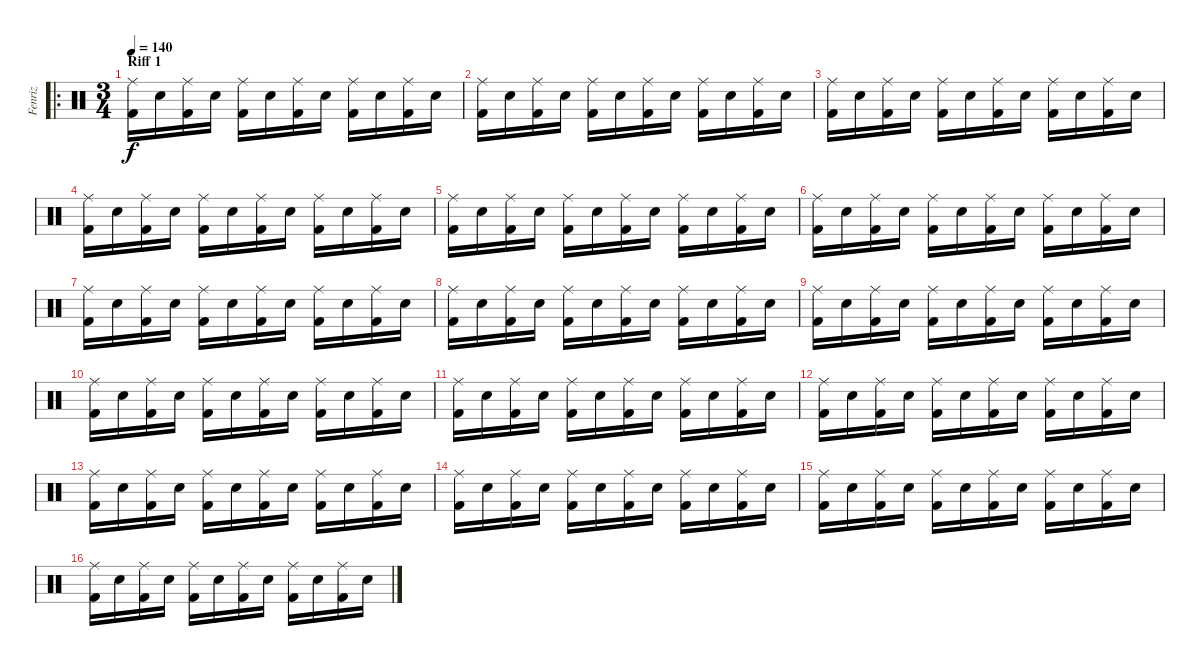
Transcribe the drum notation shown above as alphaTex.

\track ("Fenriz" "Fenriz") {instrument percussion}
\staff {score}
\articulation defaults
\ro
\ts (3 4)
\section ("" "Riff 1")
\tempo 140
\clef neutral
\ks c
("Ride (middle)" "Kick (hit) 2").16{dy f} "Snare (hit) 2".16 ("Ride (middle)" "Kick (hit) 2").16 "Snare (hit) 2".16 ("Ride (middle)" "Kick (hit) 2").16 "Snare (hit) 2".16 ("Ride (middle)" "Kick (hit) 2").16 "Snare (hit) 2".16 ("Ride (middle)" "Kick (hit) 2").16 "Snare (hit) 2".16 ("Ride (middle)" "Kick (hit) 2").16 "Snare (hit) 2".16 |
("Ride (middle)" "Kick (hit) 2").16 "Snare (hit) 2".16 ("Ride (middle)" "Kick (hit) 2").16 "Snare (hit) 2".16 ("Ride (middle)" "Kick (hit) 2").16 "Snare (hit) 2".16 ("Ride (middle)" "Kick (hit) 2").16 "Snare (hit) 2".16 ("Ride (middle)" "Kick (hit) 2").16 "Snare (hit) 2".16 ("Ride (middle)" "Kick (hit) 2").16 "Snare (hit) 2".16 |
("Ride (middle)" "Kick (hit) 2").16 "Snare (hit) 2".16 ("Ride (middle)" "Kick (hit) 2").16 "Snare (hit) 2".16 ("Ride (middle)" "Kick (hit) 2").16 "Snare (hit) 2".16 ("Ride (middle)" "Kick (hit) 2").16 "Snare (hit) 2".16 ("Ride (middle)" "Kick (hit) 2").16 "Snare (hit) 2".16 ("Ride (middle)" "Kick (hit) 2").16 "Snare (hit) 2".16 |
("Ride (middle)" "Kick (hit) 2").16 "Snare (hit) 2".16 ("Ride (middle)" "Kick (hit) 2").16 "Snare (hit) 2".16 ("Ride (middle)" "Kick (hit) 2").16 "Snare (hit) 2".16 ("Ride (middle)" "Kick (hit) 2").16 "Snare (hit) 2".16 ("Ride (middle)" "Kick (hit) 2").16 "Snare (hit) 2".16 ("Ride (middle)" "Kick (hit) 2").16 "Snare (hit) 2".16 |
("Ride (middle)" "Kick (hit) 2").16 "Snare (hit) 2".16 ("Ride (middle)" "Kick (hit) 2").16 "Snare (hit) 2".16 ("Ride (middle)" "Kick (hit) 2").16 "Snare (hit) 2".16 ("Ride (middle)" "Kick (hit) 2").16 "Snare (hit) 2".16 ("Ride (middle)" "Kick (hit) 2").16 "Snare (hit) 2".16 ("Ride (middle)" "Kick (hit) 2").16 "Snare (hit) 2".16 |
("Ride (middle)" "Kick (hit) 2").16 "Snare (hit) 2".16 ("Ride (middle)" "Kick (hit) 2").16 "Snare (hit) 2".16 ("Ride (middle)" "Kick (hit) 2").16 "Snare (hit) 2".16 ("Ride (middle)" "Kick (hit) 2").16 "Snare (hit) 2".16 ("Ride (middle)" "Kick (hit) 2").16 "Snare (hit) 2".16 ("Ride (middle)" "Kick (hit) 2").16 "Snare (hit) 2".16 |
("Ride (middle)" "Kick (hit) 2").16 "Snare (hit) 2".16 ("Ride (middle)" "Kick (hit) 2").16 "Snare (hit) 2".16 ("Ride (middle)" "Kick (hit) 2").16 "Snare (hit) 2".16 ("Ride (middle)" "Kick (hit) 2").16 "Snare (hit) 2".16 ("Ride (middle)" "Kick (hit) 2").16 "Snare (hit) 2".16 ("Ride (middle)" "Kick (hit) 2").16 "Snare (hit) 2".16 |
("Ride (middle)" "Kick (hit) 2").16 "Snare (hit) 2".16 ("Ride (middle)" "Kick (hit) 2").16 "Snare (hit) 2".16 ("Ride (middle)" "Kick (hit) 2").16 "Snare (hit) 2".16 ("Ride (middle)" "Kick (hit) 2").16 "Snare (hit) 2".16 ("Ride (middle)" "Kick (hit) 2").16 "Snare (hit) 2".16 ("Ride (middle)" "Kick (hit) 2").16 "Snare (hit) 2".16 |
("Ride (middle)" "Kick (hit) 2").16 "Snare (hit) 2".16 ("Ride (middle)" "Kick (hit) 2").16 "Snare (hit) 2".16 ("Ride (middle)" "Kick (hit) 2").16 "Snare (hit) 2".16 ("Ride (middle)" "Kick (hit) 2").16 "Snare (hit) 2".16 ("Ride (middle)" "Kick (hit) 2").16 "Snare (hit) 2".16 ("Ride (middle)" "Kick (hit) 2").16 "Snare (hit) 2".16 |
("Ride (middle)" "Kick (hit) 2").16 "Snare (hit) 2".16 ("Ride (middle)" "Kick (hit) 2").16 "Snare (hit) 2".16 ("Ride (middle)" "Kick (hit) 2").16 "Snare (hit) 2".16 ("Ride (middle)" "Kick (hit) 2").16 "Snare (hit) 2".16 ("Ride (middle)" "Kick (hit) 2").16 "Snare (hit) 2".16 ("Ride (middle)" "Kick (hit) 2").16 "Snare (hit) 2".16 |
("Ride (middle)" "Kick (hit) 2").16 "Snare (hit) 2".16 ("Ride (middle)" "Kick (hit) 2").16 "Snare (hit) 2".16 ("Ride (middle)" "Kick (hit) 2").16 "Snare (hit) 2".16 ("Ride (middle)" "Kick (hit) 2").16 "Snare (hit) 2".16 ("Ride (middle)" "Kick (hit) 2").16 "Snare (hit) 2".16 ("Ride (middle)" "Kick (hit) 2").16 "Snare (hit) 2".16 |
("Ride (middle)" "Kick (hit) 2").16 "Snare (hit) 2".16 ("Ride (middle)" "Kick (hit) 2").16 "Snare (hit) 2".16 ("Ride (middle)" "Kick (hit) 2").16 "Snare (hit) 2".16 ("Ride (middle)" "Kick (hit) 2").16 "Snare (hit) 2".16 ("Ride (middle)" "Kick (hit) 2").16 "Snare (hit) 2".16 ("Ride (middle)" "Kick (hit) 2").16 "Snare (hit) 2".16 |
("Ride (middle)" "Kick (hit) 2").16 "Snare (hit) 2".16 ("Ride (middle)" "Kick (hit) 2").16 "Snare (hit) 2".16 ("Ride (middle)" "Kick (hit) 2").16 "Snare (hit) 2".16 ("Ride (middle)" "Kick (hit) 2").16 "Snare (hit) 2".16 ("Ride (middle)" "Kick (hit) 2").16 "Snare (hit) 2".16 ("Ride (middle)" "Kick (hit) 2").16 "Snare (hit) 2".16 |
("Ride (middle)" "Kick (hit) 2").16 "Snare (hit) 2".16 ("Ride (middle)" "Kick (hit) 2").16 "Snare (hit) 2".16 ("Ride (middle)" "Kick (hit) 2").16 "Snare (hit) 2".16 ("Ride (middle)" "Kick (hit) 2").16 "Snare (hit) 2".16 ("Ride (middle)" "Kick (hit) 2").16 "Snare (hit) 2".16 ("Ride (middle)" "Kick (hit) 2").16 "Snare (hit) 2".16 |
("Ride (middle)" "Kick (hit) 2").16 "Snare (hit) 2".16 ("Ride (middle)" "Kick (hit) 2").16 "Snare (hit) 2".16 ("Ride (middle)" "Kick (hit) 2").16 "Snare (hit) 2".16 ("Ride (middle)" "Kick (hit) 2").16 "Snare (hit) 2".16 ("Ride (middle)" "Kick (hit) 2").16 "Snare (hit) 2".16 ("Ride (middle)" "Kick (hit) 2").16 "Snare (hit) 2".16 |
("Ride (middle)" "Kick (hit) 2").16 "Snare (hit) 2".16 ("Ride (middle)" "Kick (hit) 2").16 "Snare (hit) 2".16 ("Ride (middle)" "Kick (hit) 2").16 "Snare (hit) 2".16 ("Ride (middle)" "Kick (hit) 2").16 "Snare (hit) 2".16 ("Ride (middle)" "Kick (hit) 2").16 "Snare (hit) 2".16 ("Ride (middle)" "Kick (hit) 2").16 "Snare (hit) 2".16
